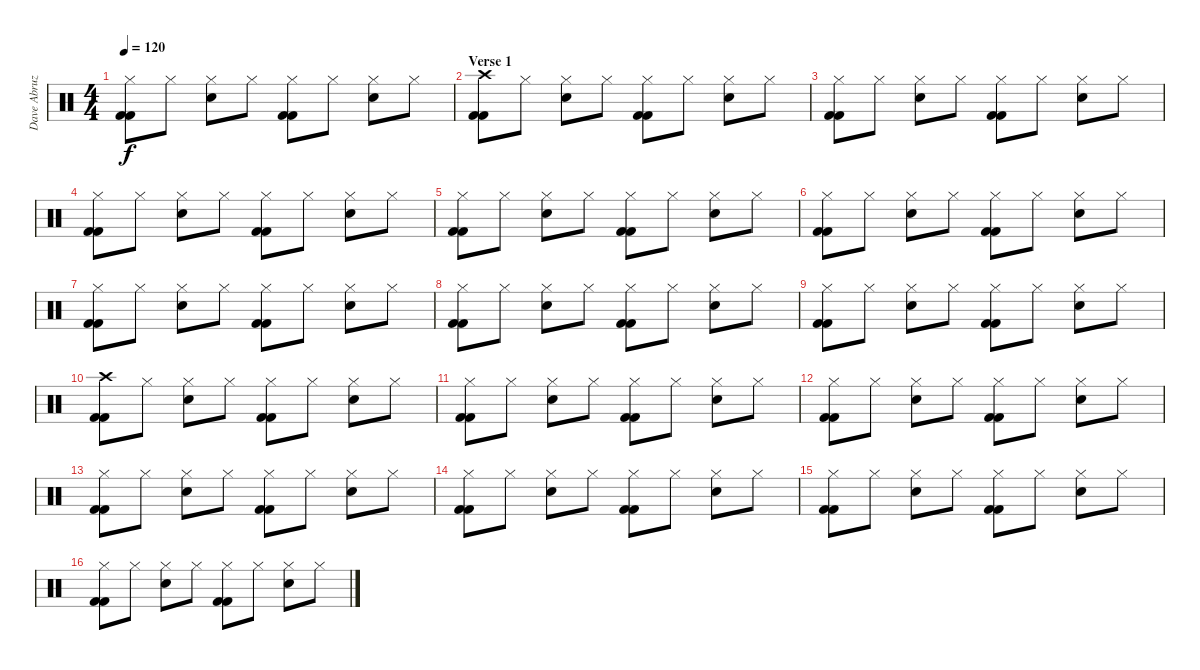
\track ("Dave Abruzzese" "Dave Abruz") {instrument percussion}
\staff {score}
\articulation defaults
\ts (4 4)
\tempo 120
\clef neutral
\ks c
("Hi-Hat (closed)" "Kick (hit) 2" "Kick (hit) 2").8{dy f} "Hi-Hat (closed)".8 ("Hi-Hat (closed)" "Electric Snare (hit)").8 "Hi-Hat (closed)".8 ("Hi-Hat (closed)" "Kick (hit) 2" "Kick (hit) 2").8 "Hi-Hat (closed)".8 ("Hi-Hat (closed)" "Electric Snare (hit)").8 "Hi-Hat (closed)".8 |
\section ("" "Verse 1")
("Crash high (hit)" "Kick (hit) 2" "Kick (hit) 2").8 "Hi-Hat (closed)".8 ("Hi-Hat (closed)" "Electric Snare (hit)").8 "Hi-Hat (closed)".8 ("Hi-Hat (closed)" "Kick (hit) 2" "Kick (hit) 2").8 "Hi-Hat (closed)".8 ("Hi-Hat (closed)" "Electric Snare (hit)").8 "Hi-Hat (closed)".8 |
("Hi-Hat (closed)" "Kick (hit) 2" "Kick (hit) 2").8 "Hi-Hat (closed)".8 ("Hi-Hat (closed)" "Electric Snare (hit)").8 "Hi-Hat (closed)".8 ("Hi-Hat (closed)" "Kick (hit) 2" "Kick (hit) 2").8 "Hi-Hat (closed)".8 ("Hi-Hat (closed)" "Electric Snare (hit)").8 "Hi-Hat (closed)".8 |
("Hi-Hat (closed)" "Kick (hit) 2" "Kick (hit) 2").8 "Hi-Hat (closed)".8 ("Hi-Hat (closed)" "Electric Snare (hit)").8 "Hi-Hat (closed)".8 ("Hi-Hat (closed)" "Kick (hit) 2" "Kick (hit) 2").8 "Hi-Hat (closed)".8 ("Hi-Hat (closed)" "Electric Snare (hit)").8 "Hi-Hat (closed)".8 |
("Hi-Hat (closed)" "Kick (hit) 2" "Kick (hit) 2").8 "Hi-Hat (closed)".8 ("Hi-Hat (closed)" "Electric Snare (hit)").8 "Hi-Hat (closed)".8 ("Hi-Hat (closed)" "Kick (hit) 2" "Kick (hit) 2").8 "Hi-Hat (closed)".8 ("Hi-Hat (closed)" "Electric Snare (hit)").8 "Hi-Hat (closed)".8 |
("Hi-Hat (closed)" "Kick (hit) 2" "Kick (hit) 2").8 "Hi-Hat (closed)".8 ("Hi-Hat (closed)" "Electric Snare (hit)").8 "Hi-Hat (closed)".8 ("Hi-Hat (closed)" "Kick (hit) 2" "Kick (hit) 2").8 "Hi-Hat (closed)".8 ("Hi-Hat (closed)" "Electric Snare (hit)").8 "Hi-Hat (closed)".8 |
("Hi-Hat (closed)" "Kick (hit) 2" "Kick (hit) 2").8 "Hi-Hat (closed)".8 ("Hi-Hat (closed)" "Electric Snare (hit)").8 "Hi-Hat (closed)".8 ("Hi-Hat (closed)" "Kick (hit) 2" "Kick (hit) 2").8 "Hi-Hat (closed)".8 ("Hi-Hat (closed)" "Electric Snare (hit)").8 "Hi-Hat (closed)".8 |
("Hi-Hat (closed)" "Kick (hit) 2" "Kick (hit) 2").8 "Hi-Hat (closed)".8 ("Hi-Hat (closed)" "Electric Snare (hit)").8 "Hi-Hat (closed)".8 ("Hi-Hat (closed)" "Kick (hit) 2" "Kick (hit) 2").8 "Hi-Hat (closed)".8 ("Hi-Hat (closed)" "Electric Snare (hit)").8 "Hi-Hat (closed)".8 |
("Hi-Hat (closed)" "Kick (hit) 2" "Kick (hit) 2").8 "Hi-Hat (closed)".8 ("Hi-Hat (closed)" "Electric Snare (hit)").8 "Hi-Hat (closed)".8 ("Hi-Hat (closed)" "Kick (hit) 2" "Kick (hit) 2").8 "Hi-Hat (closed)".8 ("Hi-Hat (closed)" "Electric Snare (hit)").8 "Hi-Hat (closed)".8 |
("Crash high (hit)" "Kick (hit) 2" "Kick (hit) 2").8 "Hi-Hat (closed)".8 ("Hi-Hat (closed)" "Electric Snare (hit)").8 "Hi-Hat (closed)".8 ("Hi-Hat (closed)" "Kick (hit) 2" "Kick (hit) 2").8 "Hi-Hat (closed)".8 ("Hi-Hat (closed)" "Electric Snare (hit)").8 "Hi-Hat (closed)".8 |
("Hi-Hat (closed)" "Kick (hit) 2" "Kick (hit) 2").8 "Hi-Hat (closed)".8 ("Hi-Hat (closed)" "Electric Snare (hit)").8 "Hi-Hat (closed)".8 ("Hi-Hat (closed)" "Kick (hit) 2" "Kick (hit) 2").8 "Hi-Hat (closed)".8 ("Hi-Hat (closed)" "Electric Snare (hit)").8 "Hi-Hat (closed)".8 |
("Hi-Hat (closed)" "Kick (hit) 2" "Kick (hit) 2").8 "Hi-Hat (closed)".8 ("Hi-Hat (closed)" "Electric Snare (hit)").8 "Hi-Hat (closed)".8 ("Hi-Hat (closed)" "Kick (hit) 2" "Kick (hit) 2").8 "Hi-Hat (closed)".8 ("Hi-Hat (closed)" "Electric Snare (hit)").8 "Hi-Hat (closed)".8 |
("Hi-Hat (closed)" "Kick (hit) 2" "Kick (hit) 2").8 "Hi-Hat (closed)".8 ("Hi-Hat (closed)" "Electric Snare (hit)").8 "Hi-Hat (closed)".8 ("Hi-Hat (closed)" "Kick (hit) 2" "Kick (hit) 2").8 "Hi-Hat (closed)".8 ("Hi-Hat (closed)" "Electric Snare (hit)").8 "Hi-Hat (closed)".8 |
("Hi-Hat (closed)" "Kick (hit) 2" "Kick (hit) 2").8 "Hi-Hat (closed)".8 ("Hi-Hat (closed)" "Electric Snare (hit)").8 "Hi-Hat (closed)".8 ("Hi-Hat (closed)" "Kick (hit) 2" "Kick (hit) 2").8 "Hi-Hat (closed)".8 ("Hi-Hat (closed)" "Electric Snare (hit)").8 "Hi-Hat (closed)".8 |
("Hi-Hat (closed)" "Kick (hit) 2" "Kick (hit) 2").8 "Hi-Hat (closed)".8 ("Hi-Hat (closed)" "Electric Snare (hit)").8 "Hi-Hat (closed)".8 ("Hi-Hat (closed)" "Kick (hit) 2" "Kick (hit) 2").8 "Hi-Hat (closed)".8 ("Hi-Hat (closed)" "Electric Snare (hit)").8 "Hi-Hat (closed)".8 |
("Hi-Hat (closed)" "Kick (hit) 2" "Kick (hit) 2").8 "Hi-Hat (closed)".8 ("Hi-Hat (closed)" "Electric Snare (hit)").8 "Hi-Hat (closed)".8 ("Hi-Hat (closed)" "Kick (hit) 2" "Kick (hit) 2").8 "Hi-Hat (closed)".8 ("Hi-Hat (closed)" "Electric Snare (hit)").8 "Hi-Hat (closed)".8
